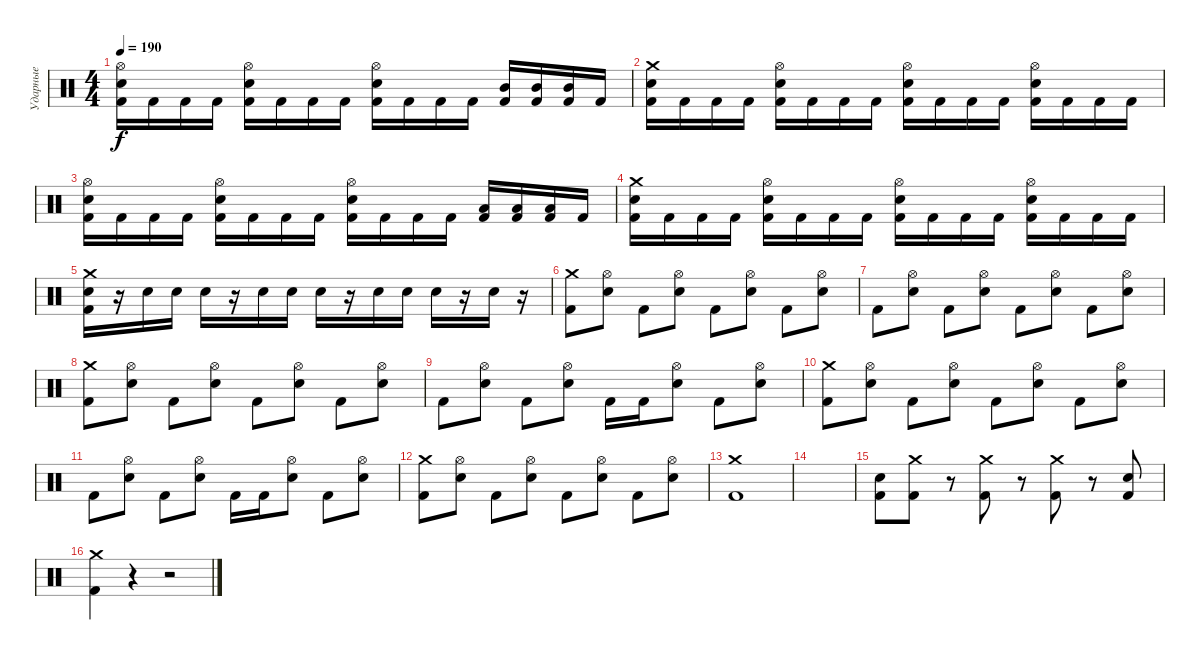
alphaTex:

\track ("Ударные" "Ударные") {instrument percussion}
\staff {score}
\articulation defaults
\ts (4 4)
\tempo 190
\clef neutral
\ks c
("Kick (hit) 2" "Snare (hit) 2" "Hi-Hat (open)").16{dy f} "Kick (hit) 2".16 "Kick (hit) 2".16 "Kick (hit) 2".16 ("Kick (hit) 2" "Snare (hit) 2" "Hi-Hat (open)").16 "Kick (hit) 2".16 "Kick (hit) 2".16 "Kick (hit) 2".16 ("Kick (hit) 2" "Snare (hit) 2" "Hi-Hat (open)").16 "Kick (hit) 2".16 "Kick (hit) 2".16 "Kick (hit) 2".16 ("Kick (hit) 2" "Mid Tom (hit)").16 ("Kick (hit) 2" "Mid Tom (hit)").16 ("Kick (hit) 2" "Mid Tom (hit)").16 "Kick (hit) 2".16 |
("Kick (hit) 2" "Snare (hit) 2" "Crash medium (hit)").16 "Kick (hit) 2".16 "Kick (hit) 2".16 "Kick (hit) 2".16 ("Kick (hit) 2" "Snare (hit) 2" "Hi-Hat (open)").16 "Kick (hit) 2".16 "Kick (hit) 2".16 "Kick (hit) 2".16 ("Kick (hit) 2" "Snare (hit) 2" "Hi-Hat (open)").16 "Kick (hit) 2".16 "Kick (hit) 2".16 "Kick (hit) 2".16 ("Kick (hit) 2" "Snare (hit) 2" "Hi-Hat (open)").16 "Kick (hit) 2".16 "Kick (hit) 2".16 "Kick (hit) 2".16 |
("Kick (hit) 2" "Snare (hit) 2" "Hi-Hat (open)").16 "Kick (hit) 2".16 "Kick (hit) 2".16 "Kick (hit) 2".16 ("Kick (hit) 2" "Snare (hit) 2" "Hi-Hat (open)").16 "Kick (hit) 2".16 "Kick (hit) 2".16 "Kick (hit) 2".16 ("Kick (hit) 2" "Snare (hit) 2" "Hi-Hat (open)").16 "Kick (hit) 2".16 "Kick (hit) 2".16 "Kick (hit) 2".16 ("Kick (hit) 2" "Low Tom (hit)").16 ("Kick (hit) 2" "Low Tom (hit)").16 ("Kick (hit) 2" "Low Tom (hit)").16 "Kick (hit) 2".16 |
("Kick (hit) 2" "Snare (hit) 2" "Crash medium (hit)").16 "Kick (hit) 2".16 "Kick (hit) 2".16 "Kick (hit) 2".16 ("Kick (hit) 2" "Snare (hit) 2" "Hi-Hat (open)").16 "Kick (hit) 2".16 "Kick (hit) 2".16 "Kick (hit) 2".16 ("Kick (hit) 2" "Snare (hit) 2" "Hi-Hat (open)").16 "Kick (hit) 2".16 "Kick (hit) 2".16 "Kick (hit) 2".16 ("Kick (hit) 2" "Snare (hit) 2" "Hi-Hat (open)").16 "Kick (hit) 2".16 "Kick (hit) 2".16 "Kick (hit) 2".16 |
("Kick (hit) 2" "Snare (hit) 2" "Crash medium (hit)").16 r.16 "Snare (hit) 2".16 "Snare (hit) 2".16 "Snare (hit) 2".16 r.16 "Snare (hit) 2".16 "Snare (hit) 2".16 "Snare (hit) 2".16 r.16 "Snare (hit) 2".16 "Snare (hit) 2".16 "Snare (hit) 2".16 r.16 "Snare (hit) 2".16 r.16 |
("Kick (hit) 2" "Crash medium (hit)").8 ("Snare (hit) 2" "Hi-Hat (open)").8 "Kick (hit) 2".8 ("Snare (hit) 2" "Hi-Hat (open)").8 "Kick (hit) 2".8 ("Snare (hit) 2" "Hi-Hat (open)").8 "Kick (hit) 2".8 ("Snare (hit) 2" "Hi-Hat (open)").8 |
"Kick (hit) 2".8 ("Snare (hit) 2" "Hi-Hat (open)").8 "Kick (hit) 2".8 ("Snare (hit) 2" "Hi-Hat (open)").8 "Kick (hit) 2".8 ("Snare (hit) 2" "Hi-Hat (open)").8 "Kick (hit) 2".8 ("Snare (hit) 2" "Hi-Hat (open)").8 |
("Kick (hit) 2" "Crash medium (hit)").8 ("Snare (hit) 2" "Hi-Hat (open)").8 "Kick (hit) 2".8 ("Snare (hit) 2" "Hi-Hat (open)").8 "Kick (hit) 2".8 ("Snare (hit) 2" "Hi-Hat (open)").8 "Kick (hit) 2".8 ("Snare (hit) 2" "Hi-Hat (open)").8 |
"Kick (hit) 2".8 ("Snare (hit) 2" "Hi-Hat (open)").8 "Kick (hit) 2".8 ("Snare (hit) 2" "Hi-Hat (open)").8 "Kick (hit) 2".16 "Kick (hit) 2".16 ("Snare (hit) 2" "Hi-Hat (open)").8 "Kick (hit) 2".8 ("Snare (hit) 2" "Hi-Hat (open)").8 |
("Kick (hit) 2" "Crash medium (hit)").8 ("Snare (hit) 2" "Hi-Hat (open)").8 "Kick (hit) 2".8 ("Snare (hit) 2" "Hi-Hat (open)").8 "Kick (hit) 2".8 ("Snare (hit) 2" "Hi-Hat (open)").8 "Kick (hit) 2".8 ("Snare (hit) 2" "Hi-Hat (open)").8 |
"Kick (hit) 2".8 ("Snare (hit) 2" "Hi-Hat (open)").8 "Kick (hit) 2".8 ("Snare (hit) 2" "Hi-Hat (open)").8 "Kick (hit) 2".16 "Kick (hit) 2".16 ("Snare (hit) 2" "Hi-Hat (open)").8 "Kick (hit) 2".8 ("Snare (hit) 2" "Hi-Hat (open)").8 |
("Kick (hit) 2" "Crash medium (hit)").8 ("Snare (hit) 2" "Hi-Hat (open)").8 "Kick (hit) 2".8 ("Snare (hit) 2" "Hi-Hat (open)").8 "Kick (hit) 2".8 ("Snare (hit) 2" "Hi-Hat (open)").8 "Kick (hit) 2".8 ("Snare (hit) 2" "Hi-Hat (open)").8 |
("Kick (hit) 2" "Crash medium (hit)").1 |
|
("Kick (hit) 2" "Snare (hit) 2").8 ("Kick (hit) 2" "Crash medium (hit)").8 r.8 ("Kick (hit) 2" "Crash medium (hit)").8 r.8 ("Kick (hit) 2" "Crash medium (hit)").8 r.8 ("Kick (hit) 2" "Snare (hit) 2").8 |
("Kick (hit) 2" "Crash medium (hit)").4 r.4 r.2
